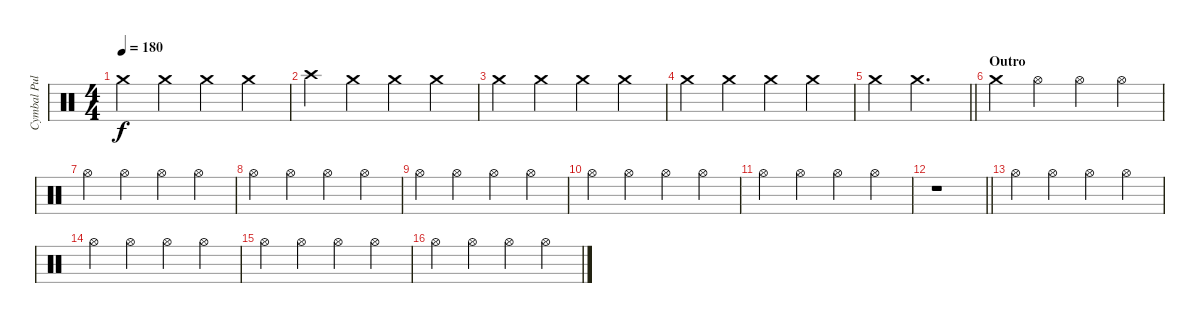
\track ("Cymbal Pulse" "Cymbal Pul") {instrument percussion}
\staff {score}
\articulation defaults
\ts (4 4)
\tempo 180
\clef neutral
\ks c "Crash medium (hit)".4{dy f} "Crash medium (hit)".4 "Crash medium (hit)".4 "Crash medium (hit)".4
|
"Crash high (hit)".4 "Crash medium (hit)".4 "Crash medium (hit)".4 "Crash medium (hit)".4 |
"Crash medium (hit)".4 "Crash medium (hit)".4 "Crash medium (hit)".4 "Crash medium (hit)".4 |
"Crash medium (hit)".4 "Crash medium (hit)".4 "Crash medium (hit)".4 "Crash medium (hit)".4 |
\barLineRight lightlight "Crash medium (hit)".4 "Crash medium (hit)".2{d}
|
\section ("" "Outro")
"Crash medium (hit)".4 "Hi-Hat (open)".4 "Hi-Hat (open)".4 "Hi-Hat (open)".4 |
"Hi-Hat (open)".4 "Hi-Hat (open)".4 "Hi-Hat (open)".4 "Hi-Hat (open)".4 |
"Hi-Hat (open)".4 "Hi-Hat (open)".4 "Hi-Hat (open)".4 "Hi-Hat (open)".4 |
"Hi-Hat (open)".4 "Hi-Hat (open)".4 "Hi-Hat (open)".4 "Hi-Hat (open)".4 |
"Hi-Hat (open)".4 "Hi-Hat (open)".4 "Hi-Hat (open)".4 "Hi-Hat (open)".4 |
"Hi-Hat (open)".4 "Hi-Hat (open)".4 "Hi-Hat (open)".4 "Hi-Hat (open)".4 |
\barLineRight lightlight
r.1 |
"Hi-Hat (open)".4 "Hi-Hat (open)".4 "Hi-Hat (open)".4 "Hi-Hat (open)".4 |
"Hi-Hat (open)".4 "Hi-Hat (open)".4 "Hi-Hat (open)".4 "Hi-Hat (open)".4 |
"Hi-Hat (open)".4 "Hi-Hat (open)".4 "Hi-Hat (open)".4 "Hi-Hat (open)".4 |
"Hi-Hat (open)".4 "Hi-Hat (open)".4 "Hi-Hat (open)".4 "Hi-Hat (open)".4
